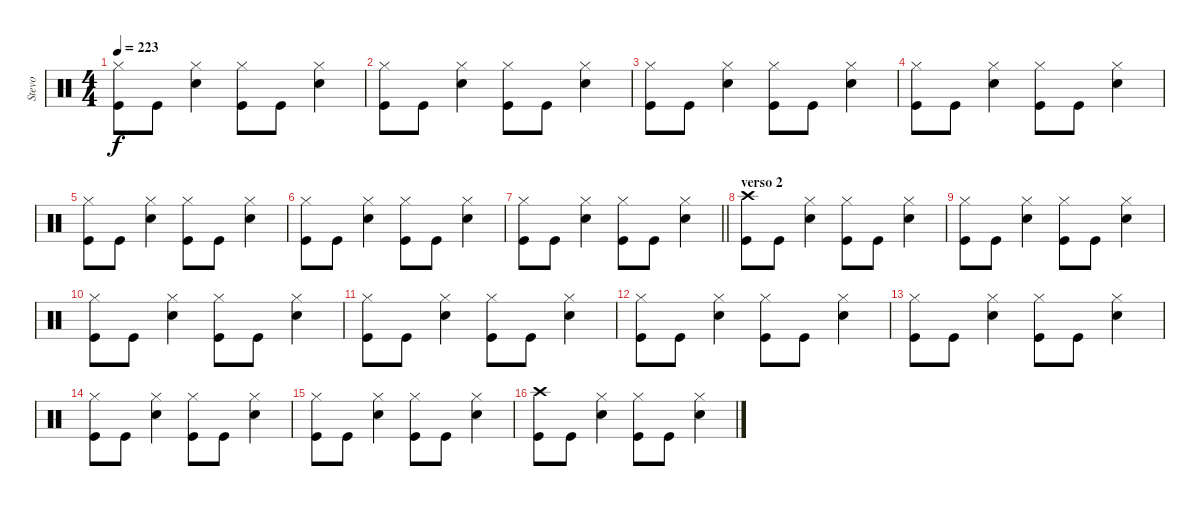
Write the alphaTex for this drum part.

\track ("Stevo" "Stevo") {instrument percussion}
\staff {score}
\articulation defaults
\ts (4 4)
\tempo 223
\clef neutral
\ks c
("Hi-Hat (closed)" "Kick (hit)").8{dy f} "Kick (hit)".8 ("Hi-Hat (closed)" "Electric Snare (hit)").4 ("Hi-Hat (closed)" "Kick (hit)").8 "Kick (hit)".8 ("Hi-Hat (closed)" "Electric Snare (hit)").4 |
("Hi-Hat (closed)" "Kick (hit)").8 "Kick (hit)".8 ("Hi-Hat (closed)" "Electric Snare (hit)").4 ("Hi-Hat (closed)" "Kick (hit)").8 "Kick (hit)".8 ("Hi-Hat (closed)" "Electric Snare (hit)").4 |
("Hi-Hat (closed)" "Kick (hit)").8 "Kick (hit)".8 ("Hi-Hat (closed)" "Electric Snare (hit)").4 ("Hi-Hat (closed)" "Kick (hit)").8 "Kick (hit)".8 ("Hi-Hat (closed)" "Electric Snare (hit)").4 |
("Hi-Hat (closed)" "Kick (hit)").8 "Kick (hit)".8 ("Hi-Hat (closed)" "Electric Snare (hit)").4 ("Hi-Hat (closed)" "Kick (hit)").8 "Kick (hit)".8 ("Hi-Hat (closed)" "Electric Snare (hit)").4 |
("Hi-Hat (closed)" "Kick (hit)").8 "Kick (hit)".8 ("Hi-Hat (closed)" "Electric Snare (hit)").4 ("Hi-Hat (closed)" "Kick (hit)").8 "Kick (hit)".8 ("Hi-Hat (closed)" "Electric Snare (hit)").4 |
("Hi-Hat (closed)" "Kick (hit)").8 "Kick (hit)".8 ("Hi-Hat (closed)" "Electric Snare (hit)").4 ("Hi-Hat (closed)" "Kick (hit)").8 "Kick (hit)".8 ("Hi-Hat (closed)" "Electric Snare (hit)").4 |
\barLineRight lightlight
("Hi-Hat (closed)" "Kick (hit)").8 "Kick (hit)".8 ("Hi-Hat (closed)" "Electric Snare (hit)").4 ("Hi-Hat (closed)" "Kick (hit)").8 "Kick (hit)".8 ("Hi-Hat (closed)" "Electric Snare (hit)").4 |
\section ("" "verso 2")
("Crash high (hit)" "Kick (hit)").8 "Kick (hit)".8 ("Hi-Hat (closed)" "Electric Snare (hit)").4 ("Hi-Hat (closed)" "Kick (hit)").8 "Kick (hit)".8 ("Hi-Hat (closed)" "Electric Snare (hit)").4 |
("Hi-Hat (closed)" "Kick (hit)").8 "Kick (hit)".8 ("Hi-Hat (closed)" "Electric Snare (hit)").4 ("Hi-Hat (closed)" "Kick (hit)").8 "Kick (hit)".8 ("Hi-Hat (closed)" "Electric Snare (hit)").4 |
("Hi-Hat (closed)" "Kick (hit)").8 "Kick (hit)".8 ("Hi-Hat (closed)" "Electric Snare (hit)").4 ("Hi-Hat (closed)" "Kick (hit)").8 "Kick (hit)".8 ("Hi-Hat (closed)" "Electric Snare (hit)").4 |
("Hi-Hat (closed)" "Kick (hit)").8 "Kick (hit)".8 ("Hi-Hat (closed)" "Electric Snare (hit)").4 ("Hi-Hat (closed)" "Kick (hit)").8 "Kick (hit)".8 ("Hi-Hat (closed)" "Electric Snare (hit)").4 |
("Hi-Hat (closed)" "Kick (hit)").8 "Kick (hit)".8 ("Hi-Hat (closed)" "Electric Snare (hit)").4 ("Hi-Hat (closed)" "Kick (hit)").8 "Kick (hit)".8 ("Hi-Hat (closed)" "Electric Snare (hit)").4 |
("Hi-Hat (closed)" "Kick (hit)").8 "Kick (hit)".8 ("Hi-Hat (closed)" "Electric Snare (hit)").4 ("Hi-Hat (closed)" "Kick (hit)").8 "Kick (hit)".8 ("Hi-Hat (closed)" "Electric Snare (hit)").4 |
("Hi-Hat (closed)" "Kick (hit)").8 "Kick (hit)".8 ("Hi-Hat (closed)" "Electric Snare (hit)").4 ("Hi-Hat (closed)" "Kick (hit)").8 "Kick (hit)".8 ("Hi-Hat (closed)" "Electric Snare (hit)").4 |
("Hi-Hat (closed)" "Kick (hit)").8 "Kick (hit)".8 ("Hi-Hat (closed)" "Electric Snare (hit)").4 ("Hi-Hat (closed)" "Kick (hit)").8 "Kick (hit)".8 ("Hi-Hat (closed)" "Electric Snare (hit)").4 |
("Crash high (hit)" "Kick (hit)").8 "Kick (hit)".8 ("Hi-Hat (closed)" "Electric Snare (hit)").4 ("Hi-Hat (closed)" "Kick (hit)").8 "Kick (hit)".8 ("Hi-Hat (closed)" "Electric Snare (hit)").4
